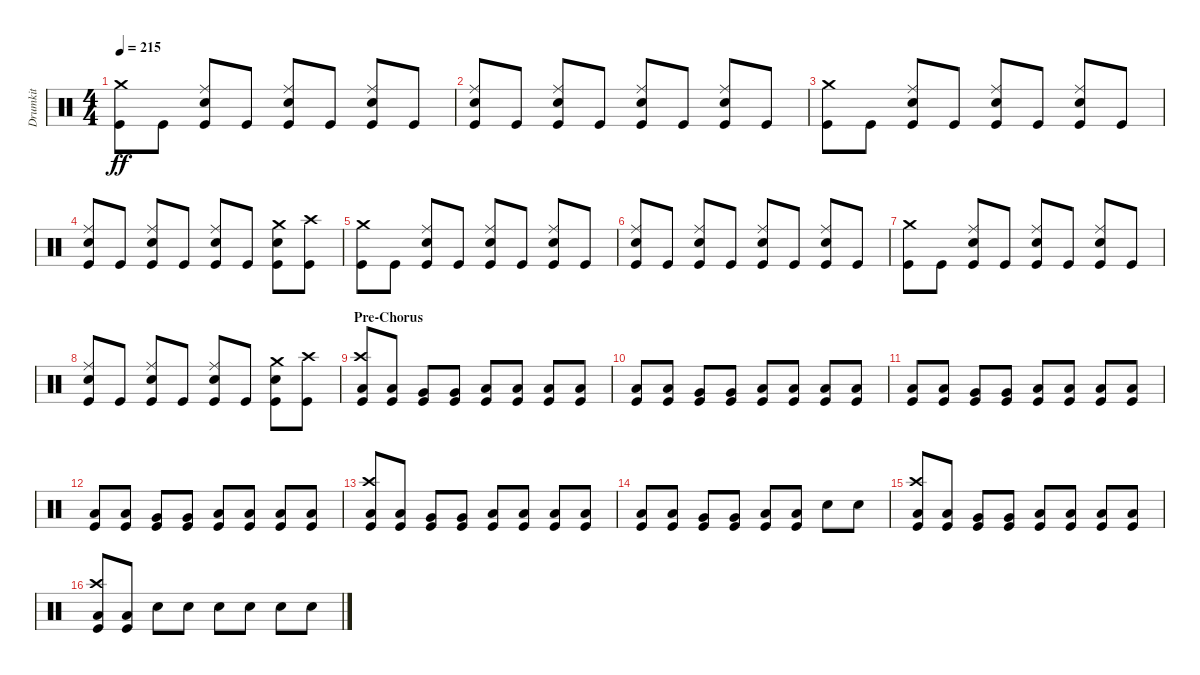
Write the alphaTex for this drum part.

\track ("Drumkit" "Drumkit") {instrument percussion}
\staff {score}
\articulation defaults
\ts (4 4)
\tempo 215
\clef neutral
\ks c
("Kick (hit)" "Crash medium (hit)").8{dy ff} "Kick (hit)".8 ("Kick (hit)" "Ride (middle)" "Snare (hit) 2").8 "Kick (hit)".8 ("Kick (hit)" "Snare (hit) 2" "Ride (middle)").8 "Kick (hit)".8 ("Kick (hit)" "Ride (middle)" "Snare (hit) 2").8 "Kick (hit)".8 |
("Kick (hit)" "Ride (middle)" "Snare (hit) 2").8 "Kick (hit)".8 ("Kick (hit)" "Ride (middle)" "Snare (hit) 2").8 "Kick (hit)".8 ("Kick (hit)" "Snare (hit) 2" "Ride (middle)").8 "Kick (hit)".8 ("Kick (hit)" "Ride (middle)" "Snare (hit) 2").8 "Kick (hit)".8 |
("Kick (hit)" "Crash medium (hit)").8 "Kick (hit)".8 ("Kick (hit)" "Ride (middle)" "Snare (hit) 2").8 "Kick (hit)".8 ("Kick (hit)" "Snare (hit) 2" "Ride (middle)").8 "Kick (hit)".8 ("Kick (hit)" "Ride (middle)" "Snare (hit) 2").8 "Kick (hit)".8 |
("Kick (hit)" "Ride (middle)" "Snare (hit) 2").8 "Kick (hit)".8 ("Kick (hit)" "Ride (middle)" "Snare (hit) 2").8 "Kick (hit)".8 ("Kick (hit)" "Snare (hit) 2" "Ride (middle)").8 "Kick (hit)".8 ("Kick (hit)" "Snare (hit) 2" "Crash medium (hit)").8 ("Kick (hit)" "Crash high (hit)").8 |
("Kick (hit)" "Crash medium (hit)").8 "Kick (hit)".8 ("Kick (hit)" "Ride (middle)" "Snare (hit) 2").8 "Kick (hit)".8 ("Kick (hit)" "Snare (hit) 2" "Ride (middle)").8 "Kick (hit)".8 ("Kick (hit)" "Ride (middle)" "Snare (hit) 2").8 "Kick (hit)".8 |
("Kick (hit)" "Ride (middle)" "Snare (hit) 2").8 "Kick (hit)".8 ("Kick (hit)" "Ride (middle)" "Snare (hit) 2").8 "Kick (hit)".8 ("Kick (hit)" "Snare (hit) 2" "Ride (middle)").8 "Kick (hit)".8 ("Kick (hit)" "Ride (middle)" "Snare (hit) 2").8 "Kick (hit)".8 |
("Kick (hit)" "Crash medium (hit)").8 "Kick (hit)".8 ("Kick (hit)" "Ride (middle)" "Snare (hit) 2").8 "Kick (hit)".8 ("Kick (hit)" "Snare (hit) 2" "Ride (middle)").8 "Kick (hit)".8 ("Kick (hit)" "Ride (middle)" "Snare (hit) 2").8 "Kick (hit)".8 |
("Kick (hit)" "Ride (middle)" "Snare (hit) 2").8 "Kick (hit)".8 ("Kick (hit)" "Ride (middle)" "Snare (hit) 2").8 "Kick (hit)".8 ("Kick (hit)" "Snare (hit) 2" "Ride (middle)").8 "Kick (hit)".8 ("Kick (hit)" "Snare (hit) 2" "Crash medium (hit)").8 ("Kick (hit)" "Crash high (hit)").8 |
\section ("" "Pre-Chorus")
("Crash high (hit)" "Low Tom (hit)" "Kick (hit)").8 ("Low Tom (hit)" "Kick (hit)").8 ("Very Low Tom (hit)" "Kick (hit)").8 ("Very Low Tom (hit)" "Kick (hit)").8 ("Low Floor Tom (hit)" "Kick (hit)").8 ("Low Floor Tom (hit)" "Kick (hit)").8 ("Low Floor Tom (hit)" "Kick (hit)").8 ("Low Floor Tom (hit)" "Kick (hit)").8 |
("Low Tom (hit)" "Kick (hit)").8 ("Low Tom (hit)" "Kick (hit)").8 ("Very Low Tom (hit)" "Kick (hit)").8 ("Very Low Tom (hit)" "Kick (hit)").8 ("Low Floor Tom (hit)" "Kick (hit)").8 ("Low Floor Tom (hit)" "Kick (hit)").8 ("Low Floor Tom (hit)" "Kick (hit)").8 ("Low Floor Tom (hit)" "Kick (hit)").8 |
("Low Tom (hit)" "Kick (hit)").8 ("Low Tom (hit)" "Kick (hit)").8 ("Very Low Tom (hit)" "Kick (hit)").8 ("Very Low Tom (hit)" "Kick (hit)").8 ("Low Floor Tom (hit)" "Kick (hit)").8 ("Low Floor Tom (hit)" "Kick (hit)").8 ("Low Floor Tom (hit)" "Kick (hit)").8 ("Low Floor Tom (hit)" "Kick (hit)").8 |
("Low Tom (hit)" "Kick (hit)").8 ("Low Tom (hit)" "Kick (hit)").8 ("Very Low Tom (hit)" "Kick (hit)").8 ("Very Low Tom (hit)" "Kick (hit)").8 ("Low Floor Tom (hit)" "Kick (hit)").8 ("Low Floor Tom (hit)" "Kick (hit)").8 ("Low Floor Tom (hit)" "Kick (hit)").8 ("Low Floor Tom (hit)" "Kick (hit)").8 |
("Crash high (hit)" "Low Tom (hit)" "Kick (hit)").8 ("Low Tom (hit)" "Kick (hit)").8 ("Very Low Tom (hit)" "Kick (hit)").8 ("Very Low Tom (hit)" "Kick (hit)").8 ("Low Floor Tom (hit)" "Kick (hit)").8 ("Low Floor Tom (hit)" "Kick (hit)").8 ("Low Floor Tom (hit)" "Kick (hit)").8 ("Low Floor Tom (hit)" "Kick (hit)").8 |
("Low Tom (hit)" "Kick (hit)").8 ("Low Tom (hit)" "Kick (hit)").8 ("Very Low Tom (hit)" "Kick (hit)").8 ("Very Low Tom (hit)" "Kick (hit)").8 ("Low Floor Tom (hit)" "Kick (hit)").8 ("Low Floor Tom (hit)" "Kick (hit)").8 "Snare (hit) 2".8 "Snare (hit) 2".8 |
("Crash high (hit)" "Low Tom (hit)" "Kick (hit)").8 ("Low Tom (hit)" "Kick (hit)").8 ("Very Low Tom (hit)" "Kick (hit)").8 ("Very Low Tom (hit)" "Kick (hit)").8 ("Low Floor Tom (hit)" "Kick (hit)").8 ("Low Floor Tom (hit)" "Kick (hit)").8 ("Low Floor Tom (hit)" "Kick (hit)").8 ("Low Floor Tom (hit)" "Kick (hit)").8 |
("Crash high (hit)" "Low Tom (hit)" "Kick (hit)").8 ("Low Tom (hit)" "Kick (hit)").8 "Snare (hit) 2".8 "Snare (hit) 2".8 "Snare (hit) 2".8 "Snare (hit) 2".8 "Snare (hit) 2".8 "Snare (hit) 2".8
